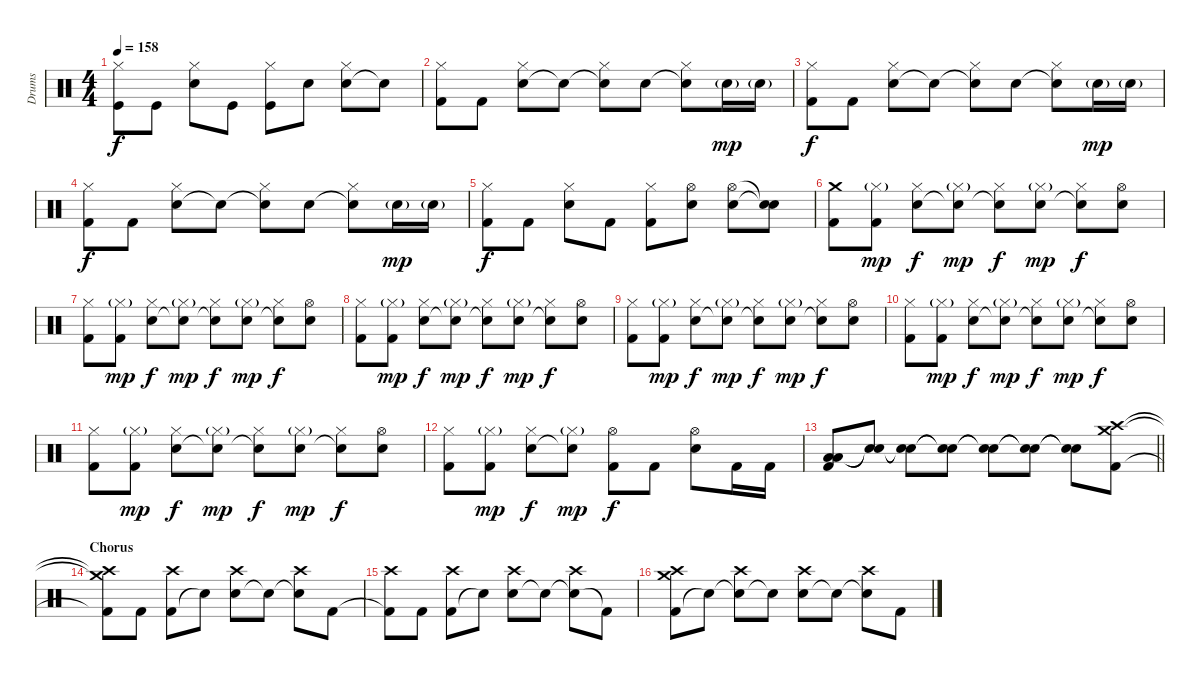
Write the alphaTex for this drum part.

\track ("Drums" "Drums") {instrument percussion}
\staff {score}
\articulation defaults
\ts (4 4)
\tempo 158
\clef neutral
\ks c
("Kick (hit)" "Hi-Hat (closed)").8{dy f} "Kick (hit)".8 ("Snare (hit) 2" "Hi-Hat (closed)").8 "Kick (hit)".8 ("Kick (hit)" "Hi-Hat (closed)").8 "Snare (hit) 2".8 ("Snare (hit) 2" "Hi-Hat (closed)").8 "Snare (hit)"{t}.8 |
("Kick (hit) 2" "Hi-Hat (closed)").8 "Kick (hit) 2".8 ("Electric Snare (hit)" "Hi-Hat (closed)").8 "Snare (hit)"{t}.8 ("Snare (hit)"{t} "Hi-Hat (closed)").8 "Electric Snare (hit)".8 ("Snare (hit)"{t} "Hi-Hat (closed)").8 "Electric Snare (hit)"{g}.16{dy mp} "Electric Snare (hit)"{g}.16 |
("Kick (hit) 2" "Hi-Hat (closed)").8{dy f} "Kick (hit) 2".8 ("Electric Snare (hit)" "Hi-Hat (closed)").8 "Snare (hit)"{t}.8 ("Snare (hit)"{t} "Hi-Hat (closed)").8 "Electric Snare (hit)".8 ("Snare (hit)"{t} "Hi-Hat (closed)").8 "Electric Snare (hit)"{g}.16{dy mp} "Electric Snare (hit)"{g}.16 |
("Kick (hit) 2" "Hi-Hat (closed)").8{dy f} "Kick (hit) 2".8 ("Electric Snare (hit)" "Hi-Hat (closed)").8 "Snare (hit)"{t}.8 ("Snare (hit)"{t} "Hi-Hat (closed)").8 "Electric Snare (hit)".8 ("Snare (hit)"{t} "Hi-Hat (closed)").8 "Electric Snare (hit)"{g}.16{dy mp} "Electric Snare (hit)"{g}.16 |
("Kick (hit) 2" "Hi-Hat (closed)").8{dy f} "Kick (hit) 2".8 ("Electric Snare (hit)" "Hi-Hat (closed)").8 "Kick (hit) 2".8 ("Kick (hit) 2" "Hi-Hat (closed)").8 ("Electric Snare (hit)" "Hi-Hat (open)").8 ("Electric Snare (hit)" "Hi-Hat (open)").8 ("Snare (hit)"{t} "Snare (hit)"{t}).8 |
("Kick (hit) 2" "Crash medium (hit)").8 ("Kick (hit) 2" "Hi-Hat (closed)"{g}).8{dy mp} ("Electric Snare (hit)" "Hi-Hat (closed)").8{dy f} ("Snare (hit)"{t} "Hi-Hat (closed)"{g}).8{dy mp} ("Snare (hit)"{t} "Hi-Hat (closed)").8{dy f} ("Electric Snare (hit)" "Hi-Hat (closed)"{g}).8{dy mp} ("Snare (hit)"{t} "Hi-Hat (closed)").8{dy f} ("Electric Snare (hit)" "Hi-Hat (open)").8 |
("Kick (hit) 2" "Hi-Hat (closed)").8 ("Kick (hit) 2" "Hi-Hat (closed)"{g}).8{dy mp} ("Electric Snare (hit)" "Hi-Hat (closed)").8{dy f} ("Snare (hit)"{t} "Hi-Hat (closed)"{g}).8{dy mp} ("Snare (hit)"{t} "Hi-Hat (closed)").8{dy f} ("Electric Snare (hit)" "Hi-Hat (closed)"{g}).8{dy mp} ("Snare (hit)"{t} "Hi-Hat (closed)").8{dy f} ("Electric Snare (hit)" "Hi-Hat (open)").8 |
("Kick (hit) 2" "Hi-Hat (closed)").8 ("Kick (hit) 2" "Hi-Hat (closed)"{g}).8{dy mp} ("Electric Snare (hit)" "Hi-Hat (closed)").8{dy f} ("Snare (hit)"{t} "Hi-Hat (closed)"{g}).8{dy mp} ("Snare (hit)"{t} "Hi-Hat (closed)").8{dy f} ("Electric Snare (hit)" "Hi-Hat (closed)"{g}).8{dy mp} ("Snare (hit)"{t} "Hi-Hat (closed)").8{dy f} ("Electric Snare (hit)" "Hi-Hat (open)").8 |
("Kick (hit) 2" "Hi-Hat (closed)").8 ("Kick (hit) 2" "Hi-Hat (closed)"{g}).8{dy mp} ("Electric Snare (hit)" "Hi-Hat (closed)").8{dy f} ("Snare (hit)"{t} "Hi-Hat (closed)"{g}).8{dy mp} ("Snare (hit)"{t} "Hi-Hat (closed)").8{dy f} ("Electric Snare (hit)" "Hi-Hat (closed)"{g}).8{dy mp} ("Snare (hit)"{t} "Hi-Hat (closed)").8{dy f} ("Electric Snare (hit)" "Hi-Hat (open)").8 |
("Kick (hit) 2" "Hi-Hat (closed)").8 ("Kick (hit) 2" "Hi-Hat (closed)"{g}).8{dy mp} ("Electric Snare (hit)" "Hi-Hat (closed)").8{dy f} ("Snare (hit)"{t} "Hi-Hat (closed)"{g}).8{dy mp} ("Snare (hit)"{t} "Hi-Hat (closed)").8{dy f} ("Electric Snare (hit)" "Hi-Hat (closed)"{g}).8{dy mp} ("Snare (hit)"{t} "Hi-Hat (closed)").8{dy f} ("Electric Snare (hit)" "Hi-Hat (open)").8 |
("Kick (hit) 2" "Hi-Hat (closed)").8 ("Kick (hit) 2" "Hi-Hat (closed)"{g}).8{dy mp} ("Electric Snare (hit)" "Hi-Hat (closed)").8{dy f} ("Snare (hit)"{t} "Hi-Hat (closed)"{g}).8{dy mp} ("Snare (hit)"{t} "Hi-Hat (closed)").8{dy f} ("Electric Snare (hit)" "Hi-Hat (closed)"{g}).8{dy mp} ("Snare (hit)"{t} "Hi-Hat (closed)").8{dy f} ("Electric Snare (hit)" "Hi-Hat (open)").8 |
("Kick (hit) 2" "Hi-Hat (closed)").8 ("Kick (hit) 2" "Hi-Hat (closed)"{g}).8{dy mp} ("Electric Snare (hit)" "Hi-Hat (closed)").8{dy f} ("Snare (hit)"{t} "Hi-Hat (closed)"{g}).8{dy mp} ("Kick (hit) 2" "Hi-Hat (open)").8{dy f} "Kick (hit) 2".8 ("Electric Snare (hit)" "Hi-Hat (open)").8 "Kick (hit) 2".16 "Kick (hit) 2".16 |
\barLineRight lightlight
("Low Tom (hit)" "Low Floor Tom (hit)" "Kick (hit) 2").8 ("Snare (hit)"{t} "Snare (hit)"{t}).8 ("Snare (hit)"{t} "Snare (hit)"{t}).8 ("Snare (hit)"{t} "Snare (hit)"{t}).8 ("Snare (hit)"{t} "Snare (hit)"{t}).8 ("Snare (hit)"{t} "Snare (hit)"{t}).8 ("Snare (hit)"{t} "Snare (hit)"{t}).8 ("Kick (hit) 2" "Crash medium (hit)" "Crash high (hit)").8 |
\section ("" "Chorus")
("Kick (hit) 2"{t} "Crash medium (hit)"{t} "Crash high (hit)"{t}).8 "Kick (hit) 2".8 ("Kick (hit) 2" "Crash high (hit)").8 "Snare (hit)"{t}.8 ("Electric Snare (hit)" "Crash high (hit)").8 "Snare (hit)"{t}.8 ("Snare (hit)"{t} "Crash high (hit)").8 "Kick (hit) 2".8 |
("Kick (hit) 2"{t} "Crash high (hit)").8 "Kick (hit) 2".8 ("Kick (hit) 2" "Crash high (hit)").8 "Snare (hit)"{t}.8 ("Electric Snare (hit)" "Crash high (hit)").8 "Snare (hit)"{t}.8 ("Snare (hit)"{t} "Crash high (hit)").8 "Kick (hit) 2"{t}.8 |
("Kick (hit) 2" "Crash medium (hit)" "Crash high (hit)").8 "Snare (hit)"{t}.8 ("Snare (hit)"{t} "Crash high (hit)").8 "Snare (hit)"{t}.8 ("Electric Snare (hit)" "Crash high (hit)").8 "Snare (hit)"{t}.8 ("Snare (hit)"{t} "Crash high (hit)").8 "Kick (hit) 2".8
